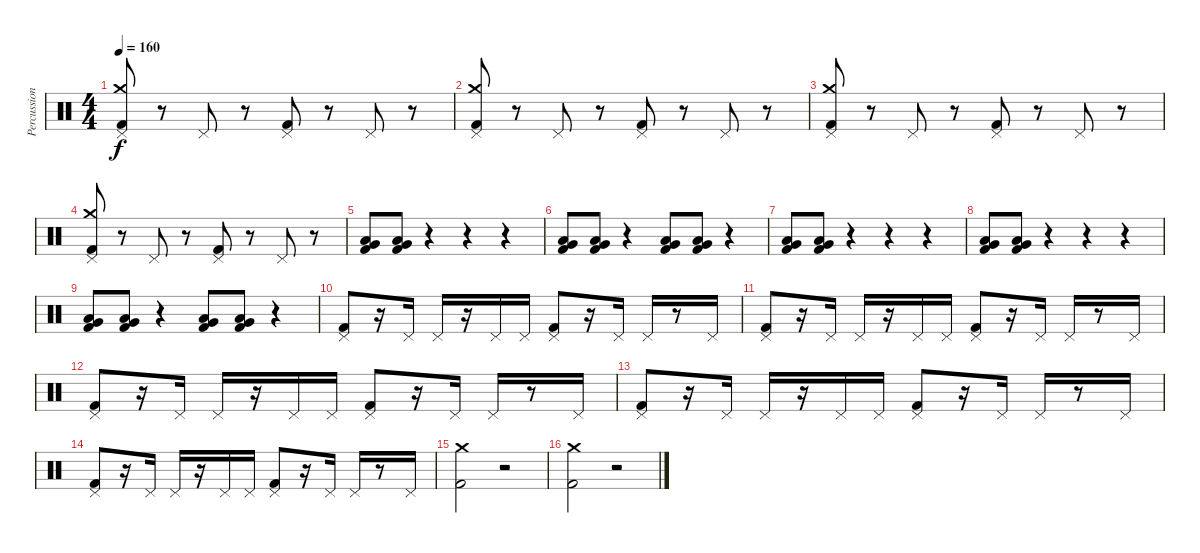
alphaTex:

\track ("Percussion" "Percussion") {instrument percussion}
\staff {score}
\articulation defaults
\ts (4 4)
\tempo 160
\clef neutral
\ks c
("Pedal Hi-Hat (hit)" "Crash medium (hit)" "Kick (hit) 2").8{dy f} r.8 "Pedal Hi-Hat (hit)".8 r.8 ("Pedal Hi-Hat (hit)" "Kick (hit) 2").8 r.8 "Pedal Hi-Hat (hit)".8 r.8 |
("Pedal Hi-Hat (hit)" "Crash medium (hit)" "Kick (hit) 2").8 r.8 "Pedal Hi-Hat (hit)".8 r.8 ("Pedal Hi-Hat (hit)" "Kick (hit) 2").8 r.8 "Pedal Hi-Hat (hit)".8 r.8 |
("Pedal Hi-Hat (hit)" "Crash medium (hit)" "Kick (hit) 2").8 r.8 "Pedal Hi-Hat (hit)".8 r.8 ("Pedal Hi-Hat (hit)" "Kick (hit) 2").8 r.8 "Pedal Hi-Hat (hit)".8 r.8 |
("Pedal Hi-Hat (hit)" "Crash medium (hit)" "Kick (hit) 2").8 r.8 "Pedal Hi-Hat (hit)".8 r.8 ("Pedal Hi-Hat (hit)" "Kick (hit) 2").8 r.8 "Pedal Hi-Hat (hit)".8 r.8 |
("Kick (hit) 2" "Very Low Tom (hit)" "Low Tom (hit)").8 ("Kick (hit) 2" "Very Low Tom (hit)" "Low Tom (hit)").8 r.4 r.4 r.4 |
("Kick (hit) 2" "Very Low Tom (hit)" "Low Tom (hit)").8 ("Kick (hit) 2" "Very Low Tom (hit)" "Low Tom (hit)").8 r.4 ("Kick (hit) 2" "Very Low Tom (hit)" "Low Tom (hit)").8 ("Kick (hit) 2" "Very Low Tom (hit)" "Low Tom (hit)").8 r.4 |
("Kick (hit) 2" "Very Low Tom (hit)" "Low Tom (hit)").8 ("Kick (hit) 2" "Very Low Tom (hit)" "Low Tom (hit)").8 r.4 r.4 r.4 |
("Kick (hit) 2" "Very Low Tom (hit)" "Low Tom (hit)").8 ("Kick (hit) 2" "Very Low Tom (hit)" "Low Tom (hit)").8 r.4 r.4 r.4 |
("Kick (hit) 2" "Very Low Tom (hit)" "Low Tom (hit)").8 ("Kick (hit) 2" "Very Low Tom (hit)" "Low Tom (hit)").8 r.4 ("Kick (hit) 2" "Very Low Tom (hit)" "Low Tom (hit)").8 ("Kick (hit) 2" "Very Low Tom (hit)" "Low Tom (hit)").8 r.4 |
("Pedal Hi-Hat (hit)" "Kick (hit) 2").8 r.16 "Pedal Hi-Hat (hit)".16 "Pedal Hi-Hat (hit)".16 r.16 "Pedal Hi-Hat (hit)".16 "Pedal Hi-Hat (hit)".16 ("Pedal Hi-Hat (hit)" "Kick (hit) 2").8 r.16 "Pedal Hi-Hat (hit)".16 "Pedal Hi-Hat (hit)".16 r.8 "Pedal Hi-Hat (hit)".16 |
("Pedal Hi-Hat (hit)" "Kick (hit) 2").8 r.16 "Pedal Hi-Hat (hit)".16 "Pedal Hi-Hat (hit)".16 r.16 "Pedal Hi-Hat (hit)".16 "Pedal Hi-Hat (hit)".16 ("Pedal Hi-Hat (hit)" "Kick (hit) 2").8 r.16 "Pedal Hi-Hat (hit)".16 "Pedal Hi-Hat (hit)".16 r.8 "Pedal Hi-Hat (hit)".16 |
("Pedal Hi-Hat (hit)" "Kick (hit) 2").8 r.16 "Pedal Hi-Hat (hit)".16 "Pedal Hi-Hat (hit)".16 r.16 "Pedal Hi-Hat (hit)".16 "Pedal Hi-Hat (hit)".16 ("Pedal Hi-Hat (hit)" "Kick (hit) 2").8 r.16 "Pedal Hi-Hat (hit)".16 "Pedal Hi-Hat (hit)".16 r.8 "Pedal Hi-Hat (hit)".16 |
("Pedal Hi-Hat (hit)" "Kick (hit) 2").8 r.16 "Pedal Hi-Hat (hit)".16 "Pedal Hi-Hat (hit)".16 r.16 "Pedal Hi-Hat (hit)".16 "Pedal Hi-Hat (hit)".16 ("Pedal Hi-Hat (hit)" "Kick (hit) 2").8 r.16 "Pedal Hi-Hat (hit)".16 "Pedal Hi-Hat (hit)".16 r.8 "Pedal Hi-Hat (hit)".16 |
("Pedal Hi-Hat (hit)" "Kick (hit) 2").8 r.16 "Pedal Hi-Hat (hit)".16 "Pedal Hi-Hat (hit)".16 r.16 "Pedal Hi-Hat (hit)".16 "Pedal Hi-Hat (hit)".16 ("Pedal Hi-Hat (hit)" "Kick (hit) 2").8 r.16 "Pedal Hi-Hat (hit)".16 "Pedal Hi-Hat (hit)".16 r.8 "Pedal Hi-Hat (hit)".16 |
("Crash medium (hit)" "Kick (hit) 2").2 r.2 |
("Crash medium (hit)" "Kick (hit) 2").2 r.2
